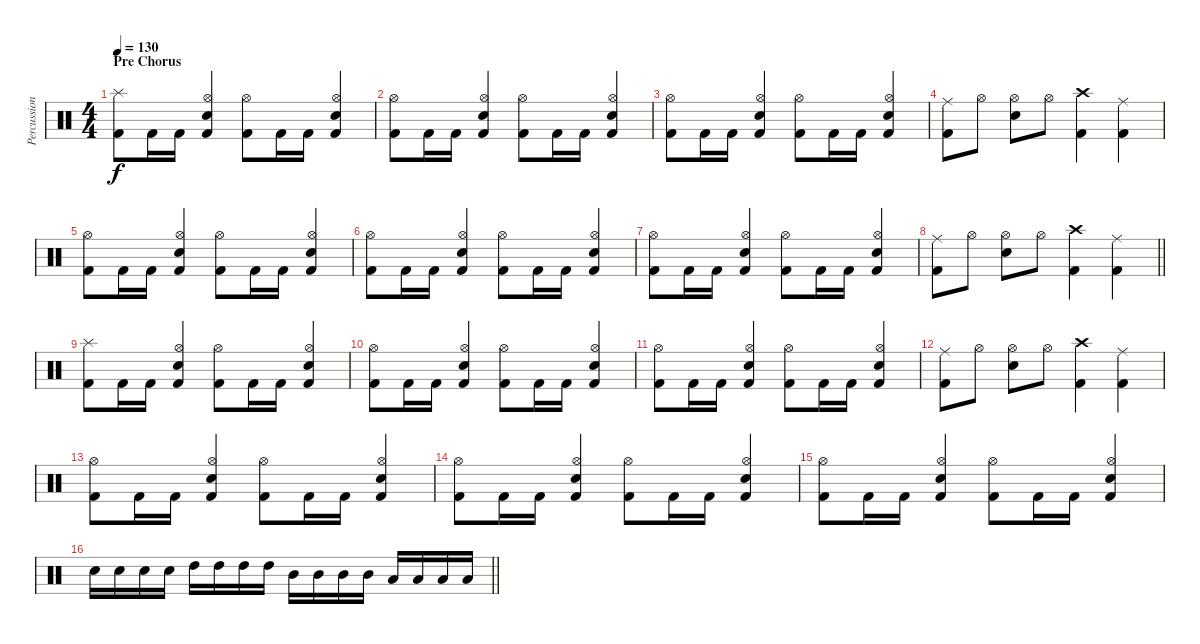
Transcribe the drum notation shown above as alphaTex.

\track ("Percussion" "Percussion") {instrument percussion}
\staff {score}
\articulation defaults
\ts (4 4)
\section ("" "Pre Chorus")
\tempo 130
\clef neutral
\ks c
("Splash (hit)" "Kick (hit) 2").8{dy f} "Kick (hit) 2".16 "Kick (hit) 2".16 ("Hi-Hat (open)" "Electric Snare (hit)" "Kick (hit) 2").4 ("Hi-Hat (open)" "Kick (hit) 2").8 "Kick (hit) 2".16 "Kick (hit) 2".16 ("Hi-Hat (open)" "Electric Snare (hit)" "Kick (hit) 2").4 |
("Hi-Hat (open)" "Kick (hit) 2").8 "Kick (hit) 2".16 "Kick (hit) 2".16 ("Hi-Hat (open)" "Electric Snare (hit)" "Kick (hit) 2").4 ("Hi-Hat (open)" "Kick (hit) 2").8 "Kick (hit) 2".16 "Kick (hit) 2".16 ("Hi-Hat (open)" "Electric Snare (hit)" "Kick (hit) 2").4 |
("Hi-Hat (open)" "Kick (hit) 2").8 "Kick (hit) 2".16 "Kick (hit) 2".16 ("Hi-Hat (open)" "Electric Snare (hit)" "Kick (hit) 2").4 ("Hi-Hat (open)" "Kick (hit) 2").8 "Kick (hit) 2".16 "Kick (hit) 2".16 ("Hi-Hat (open)" "Electric Snare (hit)" "Kick (hit) 2").4 |
("Ride (middle)" "Kick (hit) 2").8 "Hi-Hat (open)".8 ("Hi-Hat (open)" "Electric Snare (hit)").8 "Hi-Hat (open)".8 ("Crash high (hit)" "Kick (hit) 2").4 ("Ride (middle)" "Kick (hit) 2").4 |
("Hi-Hat (open)" "Kick (hit) 2").8 "Kick (hit) 2".16 "Kick (hit) 2".16 ("Hi-Hat (open)" "Electric Snare (hit)" "Kick (hit) 2").4 ("Hi-Hat (open)" "Kick (hit) 2").8 "Kick (hit) 2".16 "Kick (hit) 2".16 ("Hi-Hat (open)" "Electric Snare (hit)" "Kick (hit) 2").4 |
("Hi-Hat (open)" "Kick (hit) 2").8 "Kick (hit) 2".16 "Kick (hit) 2".16 ("Hi-Hat (open)" "Electric Snare (hit)" "Kick (hit) 2").4 ("Hi-Hat (open)" "Kick (hit) 2").8 "Kick (hit) 2".16 "Kick (hit) 2".16 ("Hi-Hat (open)" "Electric Snare (hit)" "Kick (hit) 2").4 |
("Hi-Hat (open)" "Kick (hit) 2").8 "Kick (hit) 2".16 "Kick (hit) 2".16 ("Hi-Hat (open)" "Electric Snare (hit)" "Kick (hit) 2").4 ("Hi-Hat (open)" "Kick (hit) 2").8 "Kick (hit) 2".16 "Kick (hit) 2".16 ("Hi-Hat (open)" "Electric Snare (hit)" "Kick (hit) 2").4 |
\barLineRight lightlight
("Ride (middle)" "Kick (hit) 2").8 "Hi-Hat (open)".8 ("Hi-Hat (open)" "Electric Snare (hit)").8 "Hi-Hat (open)".8 ("Crash high (hit)" "Kick (hit) 2").4 ("Ride (middle)" "Kick (hit) 2").4 |
("Splash (hit)" "Kick (hit) 2").8 "Kick (hit) 2".16 "Kick (hit) 2".16 ("Hi-Hat (open)" "Electric Snare (hit)" "Kick (hit) 2").4 ("Hi-Hat (open)" "Kick (hit) 2").8 "Kick (hit) 2".16 "Kick (hit) 2".16 ("Hi-Hat (open)" "Electric Snare (hit)" "Kick (hit) 2").4 |
("Hi-Hat (open)" "Kick (hit) 2").8 "Kick (hit) 2".16 "Kick (hit) 2".16 ("Hi-Hat (open)" "Electric Snare (hit)" "Kick (hit) 2").4 ("Hi-Hat (open)" "Kick (hit) 2").8 "Kick (hit) 2".16 "Kick (hit) 2".16 ("Hi-Hat (open)" "Electric Snare (hit)" "Kick (hit) 2").4 |
("Hi-Hat (open)" "Kick (hit) 2").8 "Kick (hit) 2".16 "Kick (hit) 2".16 ("Hi-Hat (open)" "Electric Snare (hit)" "Kick (hit) 2").4 ("Hi-Hat (open)" "Kick (hit) 2").8 "Kick (hit) 2".16 "Kick (hit) 2".16 ("Hi-Hat (open)" "Electric Snare (hit)" "Kick (hit) 2").4 |
("Ride (middle)" "Kick (hit) 2").8 "Hi-Hat (open)".8 ("Hi-Hat (open)" "Electric Snare (hit)").8 "Hi-Hat (open)".8 ("Crash high (hit)" "Kick (hit) 2").4 ("Ride (middle)" "Kick (hit) 2").4 |
("Hi-Hat (open)" "Kick (hit) 2").8 "Kick (hit) 2".16 "Kick (hit) 2".16 ("Hi-Hat (open)" "Electric Snare (hit)" "Kick (hit) 2").4 ("Hi-Hat (open)" "Kick (hit) 2").8 "Kick (hit) 2".16 "Kick (hit) 2".16 ("Hi-Hat (open)" "Electric Snare (hit)" "Kick (hit) 2").4 |
("Hi-Hat (open)" "Kick (hit) 2").8 "Kick (hit) 2".16 "Kick (hit) 2".16 ("Hi-Hat (open)" "Electric Snare (hit)" "Kick (hit) 2").4 ("Hi-Hat (open)" "Kick (hit) 2").8 "Kick (hit) 2".16 "Kick (hit) 2".16 ("Hi-Hat (open)" "Electric Snare (hit)" "Kick (hit) 2").4 |
("Hi-Hat (open)" "Kick (hit) 2").8 "Kick (hit) 2".16 "Kick (hit) 2".16 ("Hi-Hat (open)" "Electric Snare (hit)" "Kick (hit) 2").4 ("Hi-Hat (open)" "Kick (hit) 2").8 "Kick (hit) 2".16 "Kick (hit) 2".16 ("Hi-Hat (open)" "Electric Snare (hit)" "Kick (hit) 2").4 |
\barLineRight lightlight "Electric Snare (hit)".16 "Electric Snare (hit)".16 "Electric Snare (hit)".16 "Electric Snare (hit)".16 "High Tom (hit)".16 "High Tom (hit)".16 "High Tom (hit)".16 "High Tom (hit)".16 "Mid Tom (hit)".16 "Mid Tom (hit)".16 "Mid Tom (hit)".16 "Mid Tom (hit)".16 "Low Tom (hit)".16 "Low Tom (hit)".16 "Low Tom (hit)".16 "Low Tom (hit)".16
